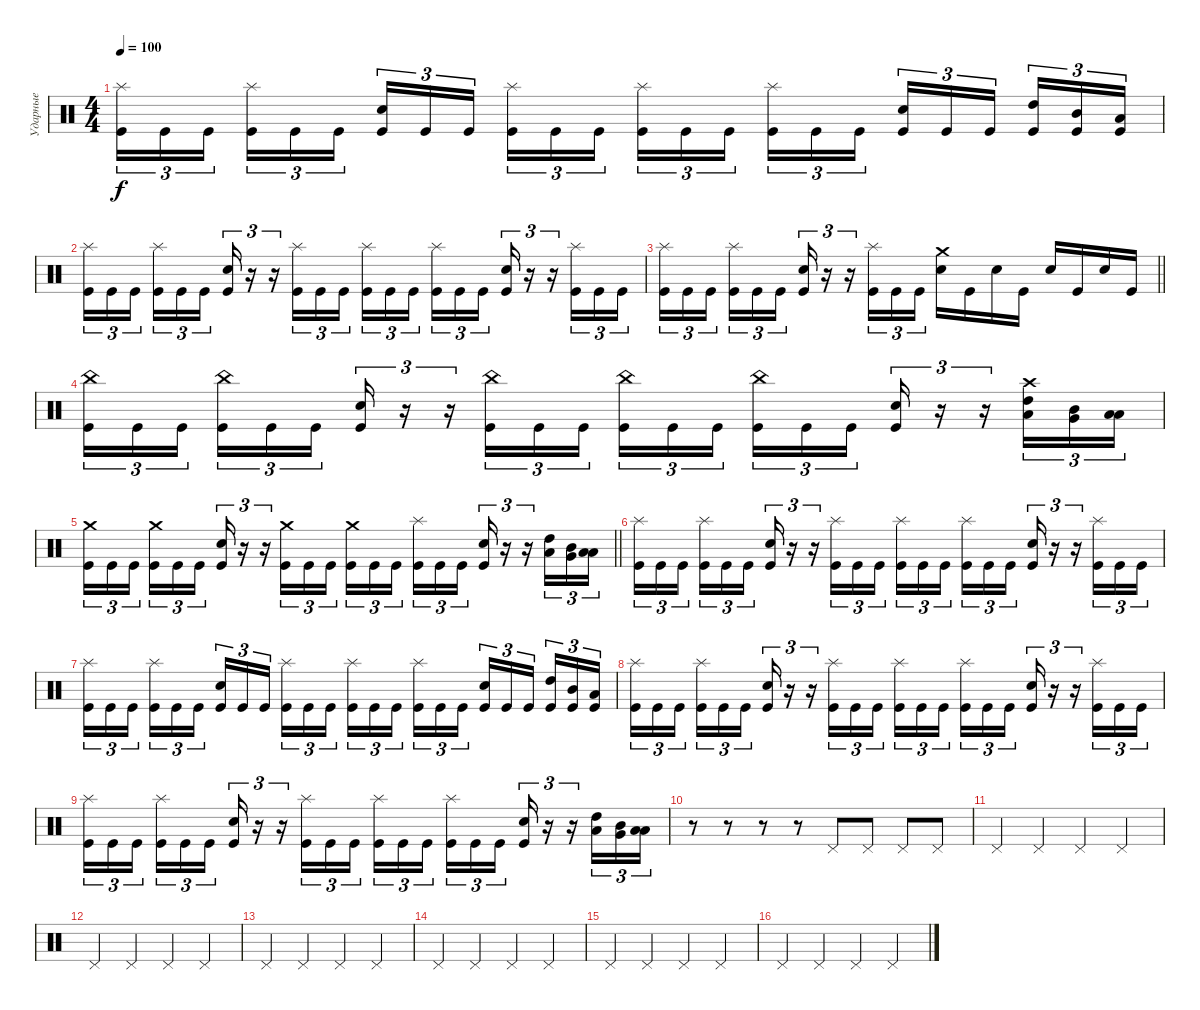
\track ("Ударные" "Ударные") {instrument percussion}
\staff {score}
\articulation defaults
\ts (4 4)
\tempo 100
\clef neutral
\ks c
("Splash (hit)" "Kick (hit)").16{tu (3 2) dy f} "Kick (hit)".16{tu (3 2)} "Kick (hit)".16{tu (3 2) beam splitsecondary} ("Splash (hit)" "Kick (hit)").16{tu (3 2)} "Kick (hit)".16{tu (3 2)} "Kick (hit)".16{tu (3 2)} ("Electric Snare (hit)" "Kick (hit)").16{tu (3 2)} "Kick (hit)".16{tu (3 2)} "Kick (hit)".16{tu (3 2) beam splitsecondary} ("Splash (hit)" "Kick (hit)").16{tu (3 2)} "Kick (hit)".16{tu (3 2)} "Kick (hit)".16{tu (3 2)} ("Splash (hit)" "Kick (hit)").16{tu (3 2)} "Kick (hit)".16{tu (3 2)} "Kick (hit)".16{tu (3 2) beam splitsecondary} ("Splash (hit)" "Kick (hit)").16{tu (3 2)} "Kick (hit)".16{tu (3 2)} "Kick (hit)".16{tu (3 2)} ("Electric Snare (hit)" "Kick (hit)").16{tu (3 2)} "Kick (hit)".16{tu (3 2)} "Kick (hit)".16{tu (3 2) beam splitsecondary} ("High Tom (hit)" "Kick (hit)").16{tu (3 2)} ("Mid Tom (hit)" "Kick (hit)").16{tu (3 2)} ("Low Tom (hit)" "Kick (hit)").16{tu (3 2)} |
("Splash (hit)" "Kick (hit)").16{tu (3 2)} "Kick (hit)".16{tu (3 2)} "Kick (hit)".16{tu (3 2) beam splitsecondary} ("Splash (hit)" "Kick (hit)").16{tu (3 2)} "Kick (hit)".16{tu (3 2)} "Kick (hit)".16{tu (3 2)} ("Electric Snare (hit)" "Kick (hit)").16{tu (3 2)} r.16{tu (3 2)} r.16{tu (3 2)} ("Splash (hit)" "Kick (hit)").16{tu (3 2)} "Kick (hit)".16{tu (3 2)} "Kick (hit)".16{tu (3 2)} ("Splash (hit)" "Kick (hit)").16{tu (3 2)} "Kick (hit)".16{tu (3 2)} "Kick (hit)".16{tu (3 2) beam splitsecondary} ("Splash (hit)" "Kick (hit)").16{tu (3 2)} "Kick (hit)".16{tu (3 2)} "Kick (hit)".16{tu (3 2)} ("Electric Snare (hit)" "Kick (hit)").16{tu (3 2)} r.16{tu (3 2)} r.16{tu (3 2)} ("Splash (hit)" "Kick (hit)").16{tu (3 2)} "Kick (hit)".16{tu (3 2)} "Kick (hit)".16{tu (3 2)} |
\barLineRight lightlight
("Splash (hit)" "Kick (hit)").16{tu (3 2)} "Kick (hit)".16{tu (3 2)} "Kick (hit)".16{tu (3 2) beam splitsecondary} ("Splash (hit)" "Kick (hit)").16{tu (3 2)} "Kick (hit)".16{tu (3 2)} "Kick (hit)".16{tu (3 2)} ("Electric Snare (hit)" "Kick (hit)").16{tu (3 2)} r.16{tu (3 2)} r.16{tu (3 2)} ("Splash (hit)" "Kick (hit)").16{tu (3 2)} "Kick (hit)".16{tu (3 2)} "Kick (hit)".16{tu (3 2)} ("Electric Snare (hit)" "Crash medium (hit)").16 "Kick (hit)".16 "Electric Snare (hit)".16 "Kick (hit)".16 "Electric Snare (hit)".16 "Kick (hit)".16 "Electric Snare (hit)".16 "Kick (hit)".16 |
("China (hit)" "Kick (hit)").16{tu (3 2)} "Kick (hit)".16{tu (3 2)} "Kick (hit)".16{tu (3 2) beam splitsecondary} ("China (hit)" "Kick (hit)").16{tu (3 2)} "Kick (hit)".16{tu (3 2)} "Kick (hit)".16{tu (3 2)} ("Electric Snare (hit)" "Kick (hit)").16{tu (3 2)} r.16{tu (3 2)} r.16{tu (3 2)} ("China (hit)" "Kick (hit)").16{tu (3 2)} "Kick (hit)".16{tu (3 2)} "Kick (hit)".16{tu (3 2)} ("China (hit)" "Kick (hit)").16{tu (3 2)} "Kick (hit)".16{tu (3 2)} "Kick (hit)".16{tu (3 2) beam splitsecondary} ("China (hit)" "Kick (hit)").16{tu (3 2)} "Kick (hit)".16{tu (3 2)} "Kick (hit)".16{tu (3 2)} ("Electric Snare (hit)" "Kick (hit)").16{tu (3 2)} r.16{tu (3 2)} r.16{tu (3 2)} ("High Tom (hit)" "Low Tom (hit)" "Crash high (hit)").16{tu (3 2)} ("Mid Tom (hit)" "Very Low Tom (hit)").16{tu (3 2)} ("Low Tom (hit)" "Low Floor Tom (hit)").16{tu (3 2)} |
\barLineRight lightlight
("Crash medium (hit)" "Kick (hit)").16{tu (3 2)} "Kick (hit)".16{tu (3 2)} "Kick (hit)".16{tu (3 2) beam splitsecondary} ("Crash medium (hit)" "Kick (hit)").16{tu (3 2)} "Kick (hit)".16{tu (3 2)} "Kick (hit)".16{tu (3 2)} ("Electric Snare (hit)" "Kick (hit)").16{tu (3 2)} r.16{tu (3 2)} r.16{tu (3 2)} ("Crash medium (hit)" "Kick (hit)").16{tu (3 2)} "Kick (hit)".16{tu (3 2)} "Kick (hit)".16{tu (3 2)} ("Crash medium (hit)" "Kick (hit)").16{tu (3 2)} "Kick (hit)".16{tu (3 2)} "Kick (hit)".16{tu (3 2) beam splitsecondary} ("Splash (hit)" "Kick (hit)").16{tu (3 2)} "Kick (hit)".16{tu (3 2)} "Kick (hit)".16{tu (3 2)} ("Electric Snare (hit)" "Kick (hit)").16{tu (3 2)} r.16{tu (3 2)} r.16{tu (3 2)} ("High Tom (hit)" "Low Tom (hit)").16{tu (3 2)} ("Mid Tom (hit)" "Very Low Tom (hit)").16{tu (3 2)} ("Low Tom (hit)" "Low Floor Tom (hit)").16{tu (3 2)} |
\section ("" " ")
("Splash (hit)" "Kick (hit)").16{tu (3 2)} "Kick (hit)".16{tu (3 2)} "Kick (hit)".16{tu (3 2) beam splitsecondary} ("Splash (hit)" "Kick (hit)").16{tu (3 2)} "Kick (hit)".16{tu (3 2)} "Kick (hit)".16{tu (3 2)} ("Electric Snare (hit)" "Kick (hit)").16{tu (3 2)} r.16{tu (3 2)} r.16{tu (3 2)} ("Splash (hit)" "Kick (hit)").16{tu (3 2)} "Kick (hit)".16{tu (3 2)} "Kick (hit)".16{tu (3 2)} ("Splash (hit)" "Kick (hit)").16{tu (3 2)} "Kick (hit)".16{tu (3 2)} "Kick (hit)".16{tu (3 2) beam splitsecondary} ("Splash (hit)" "Kick (hit)").16{tu (3 2)} "Kick (hit)".16{tu (3 2)} "Kick (hit)".16{tu (3 2)} ("Electric Snare (hit)" "Kick (hit)").16{tu (3 2)} r.16{tu (3 2)} r.16{tu (3 2)} ("Splash (hit)" "Kick (hit)").16{tu (3 2)} "Kick (hit)".16{tu (3 2)} "Kick (hit)".16{tu (3 2)} |
("Splash (hit)" "Kick (hit)").16{tu (3 2)} "Kick (hit)".16{tu (3 2)} "Kick (hit)".16{tu (3 2) beam splitsecondary} ("Splash (hit)" "Kick (hit)").16{tu (3 2)} "Kick (hit)".16{tu (3 2)} "Kick (hit)".16{tu (3 2)} ("Electric Snare (hit)" "Kick (hit)").16{tu (3 2)} "Kick (hit)".16{tu (3 2)} "Kick (hit)".16{tu (3 2) beam splitsecondary} ("Splash (hit)" "Kick (hit)").16{tu (3 2)} "Kick (hit)".16{tu (3 2)} "Kick (hit)".16{tu (3 2)} ("Splash (hit)" "Kick (hit)").16{tu (3 2)} "Kick (hit)".16{tu (3 2)} "Kick (hit)".16{tu (3 2) beam splitsecondary} ("Splash (hit)" "Kick (hit)").16{tu (3 2)} "Kick (hit)".16{tu (3 2)} "Kick (hit)".16{tu (3 2)} ("Electric Snare (hit)" "Kick (hit)").16{tu (3 2)} "Kick (hit)".16{tu (3 2)} "Kick (hit)".16{tu (3 2) beam splitsecondary} ("High Tom (hit)" "Kick (hit)").16{tu (3 2)} ("Mid Tom (hit)" "Kick (hit)").16{tu (3 2)} ("Low Tom (hit)" "Kick (hit)").16{tu (3 2)} |
("Splash (hit)" "Kick (hit)").16{tu (3 2)} "Kick (hit)".16{tu (3 2)} "Kick (hit)".16{tu (3 2) beam splitsecondary} ("Splash (hit)" "Kick (hit)").16{tu (3 2)} "Kick (hit)".16{tu (3 2)} "Kick (hit)".16{tu (3 2)} ("Electric Snare (hit)" "Kick (hit)").16{tu (3 2)} r.16{tu (3 2)} r.16{tu (3 2)} ("Splash (hit)" "Kick (hit)").16{tu (3 2)} "Kick (hit)".16{tu (3 2)} "Kick (hit)".16{tu (3 2)} ("Splash (hit)" "Kick (hit)").16{tu (3 2)} "Kick (hit)".16{tu (3 2)} "Kick (hit)".16{tu (3 2) beam splitsecondary} ("Splash (hit)" "Kick (hit)").16{tu (3 2)} "Kick (hit)".16{tu (3 2)} "Kick (hit)".16{tu (3 2)} ("Electric Snare (hit)" "Kick (hit)").16{tu (3 2)} r.16{tu (3 2)} r.16{tu (3 2)} ("Splash (hit)" "Kick (hit)").16{tu (3 2)} "Kick (hit)".16{tu (3 2)} "Kick (hit)".16{tu (3 2)} |
("Splash (hit)" "Kick (hit)").16{tu (3 2)} "Kick (hit)".16{tu (3 2)} "Kick (hit)".16{tu (3 2) beam splitsecondary} ("Splash (hit)" "Kick (hit)").16{tu (3 2)} "Kick (hit)".16{tu (3 2)} "Kick (hit)".16{tu (3 2)} ("Electric Snare (hit)" "Kick (hit)").16{tu (3 2)} r.16{tu (3 2)} r.16{tu (3 2)} ("Splash (hit)" "Kick (hit)").16{tu (3 2)} "Kick (hit)".16{tu (3 2)} "Kick (hit)".16{tu (3 2)} ("Splash (hit)" "Kick (hit)").16{tu (3 2)} "Kick (hit)".16{tu (3 2)} "Kick (hit)".16{tu (3 2) beam splitsecondary} ("Splash (hit)" "Kick (hit)").16{tu (3 2)} "Kick (hit)".16{tu (3 2)} "Kick (hit)".16{tu (3 2)} ("Electric Snare (hit)" "Kick (hit)").16{tu (3 2)} r.16{tu (3 2)} r.16{tu (3 2)} ("High Tom (hit)" "Low Tom (hit)").16{tu (3 2)} ("Mid Tom (hit)" "Very Low Tom (hit)").16{tu (3 2)} ("Low Tom (hit)" "Low Floor Tom (hit)").16{tu (3 2)} |
r.8 r.8 r.8 r.8 "Pedal Hi-Hat (hit)".8 "Pedal Hi-Hat (hit)".8 "Pedal Hi-Hat (hit)".8 "Pedal Hi-Hat (hit)".8 |
"Pedal Hi-Hat (hit)".4 "Pedal Hi-Hat (hit)".4 "Pedal Hi-Hat (hit)".4 "Pedal Hi-Hat (hit)".4 |
"Pedal Hi-Hat (hit)".4 "Pedal Hi-Hat (hit)".4 "Pedal Hi-Hat (hit)".4 "Pedal Hi-Hat (hit)".4 |
"Pedal Hi-Hat (hit)".4 "Pedal Hi-Hat (hit)".4 "Pedal Hi-Hat (hit)".4 "Pedal Hi-Hat (hit)".4 |
"Pedal Hi-Hat (hit)".4 "Pedal Hi-Hat (hit)".4 "Pedal Hi-Hat (hit)".4 "Pedal Hi-Hat (hit)".4 |
"Pedal Hi-Hat (hit)".4 "Pedal Hi-Hat (hit)".4 "Pedal Hi-Hat (hit)".4 "Pedal Hi-Hat (hit)".4 |
"Pedal Hi-Hat (hit)".4 "Pedal Hi-Hat (hit)".4 "Pedal Hi-Hat (hit)".4 "Pedal Hi-Hat (hit)".4
